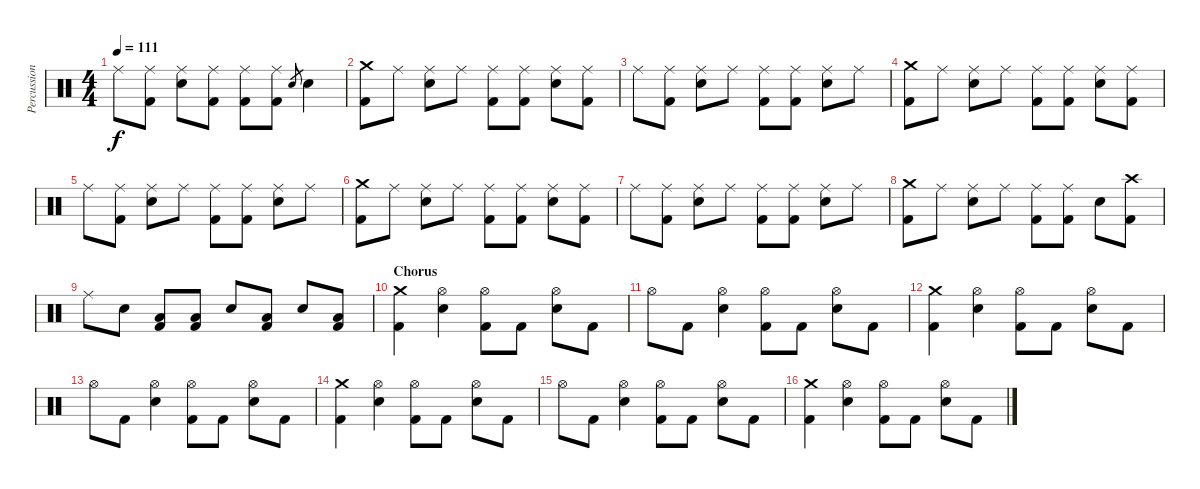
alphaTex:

\track ("Percussion" "Percussion") {instrument percussion}
\staff {score}
\articulation defaults
\ts (4 4)
\tempo 111
\clef neutral
\ks c "Ride (middle)".8{dy f}
("Ride (middle)" "Kick (hit) 2").8 ("Ride (middle)" "Electric Snare (hit)").8 ("Ride (middle)" "Kick (hit) 2").8 ("Ride (middle)" "Kick (hit) 2").8 ("Ride (middle)" "Kick (hit) 2").8 "Electric Snare (hit)".8{gr} "Electric Snare (hit)".4 |
("Crash medium (hit)" "Kick (hit) 2").8 "Ride (middle)".8 ("Ride (middle)" "Electric Snare (hit)").8 "Ride (middle)".8 ("Ride (middle)" "Kick (hit) 2").8 ("Ride (middle)" "Kick (hit) 2").8 ("Ride (middle)" "Electric Snare (hit)").8 ("Ride (middle)" "Kick (hit) 2").8 |
"Ride (middle)".8 ("Ride (middle)" "Kick (hit) 2").8 ("Ride (middle)" "Electric Snare (hit)").8 "Ride (middle)".8 ("Ride (middle)" "Kick (hit) 2").8 ("Ride (middle)" "Kick (hit) 2").8 ("Ride (middle)" "Electric Snare (hit)").8 "Ride (middle)".8 |
("Crash medium (hit)" "Kick (hit) 2").8 "Ride (middle)".8 ("Ride (middle)" "Electric Snare (hit)").8 "Ride (middle)".8 ("Ride (middle)" "Kick (hit) 2").8 ("Ride (middle)" "Kick (hit) 2").8 ("Ride (middle)" "Electric Snare (hit)").8 ("Ride (middle)" "Kick (hit) 2").8 |
"Ride (middle)".8 ("Ride (middle)" "Kick (hit) 2").8 ("Ride (middle)" "Electric Snare (hit)").8 "Ride (middle)".8 ("Ride (middle)" "Kick (hit) 2").8 ("Ride (middle)" "Kick (hit) 2").8 ("Ride (middle)" "Electric Snare (hit)").8 "Ride (middle)".8 |
("Crash medium (hit)" "Kick (hit) 2").8 "Ride (middle)".8 ("Ride (middle)" "Electric Snare (hit)").8 "Ride (middle)".8 ("Ride (middle)" "Kick (hit) 2").8 ("Ride (middle)" "Kick (hit) 2").8 ("Ride (middle)" "Electric Snare (hit)").8 ("Ride (middle)" "Kick (hit) 2").8 |
"Ride (middle)".8 ("Ride (middle)" "Kick (hit) 2").8 ("Ride (middle)" "Electric Snare (hit)").8 "Ride (middle)".8 ("Ride (middle)" "Kick (hit) 2").8 ("Ride (middle)" "Kick (hit) 2").8 ("Ride (middle)" "Electric Snare (hit)").8 "Ride (middle)".8 |
("Crash medium (hit)" "Kick (hit) 2").8 "Ride (middle)".8 ("Ride (middle)" "Electric Snare (hit)").8 "Ride (middle)".8 ("Ride (middle)" "Kick (hit) 2").8 ("Ride (middle)" "Kick (hit) 2").8 "Electric Snare (hit)".8 ("Crash high (hit)" "Kick (hit) 2").8 |
"Ride (middle)".8 "Electric Snare (hit)".8 ("Low Floor Tom (hit)" "Kick (hit) 2").8 ("Low Floor Tom (hit)" "Kick (hit) 2").8 "Electric Snare (hit)".8 ("Low Floor Tom (hit)" "Kick (hit) 2").8 "Electric Snare (hit)".8 ("Low Floor Tom (hit)" "Kick (hit) 2").8 |
\section ("" "Chorus")
("Crash medium (hit)" "Kick (hit) 2").4 ("Hi-Hat (open)" "Electric Snare (hit)").4 ("Hi-Hat (open)" "Kick (hit) 2").8 "Kick (hit) 2".8 ("Hi-Hat (open)" "Electric Snare (hit)").8 "Kick (hit) 2".8 |
"Hi-Hat (open)".8 "Kick (hit) 2".8 ("Hi-Hat (open)" "Electric Snare (hit)").4 ("Hi-Hat (open)" "Kick (hit) 2").8 "Kick (hit) 2".8 ("Hi-Hat (open)" "Electric Snare (hit)").8 "Kick (hit) 2".8 |
("Crash medium (hit)" "Kick (hit) 2").4 ("Hi-Hat (open)" "Electric Snare (hit)").4 ("Hi-Hat (open)" "Kick (hit) 2").8 "Kick (hit) 2".8 ("Hi-Hat (open)" "Electric Snare (hit)").8 "Kick (hit) 2".8 |
"Hi-Hat (open)".8 "Kick (hit) 2".8 ("Hi-Hat (open)" "Electric Snare (hit)").4 ("Hi-Hat (open)" "Kick (hit) 2").8 "Kick (hit) 2".8 ("Hi-Hat (open)" "Electric Snare (hit)").8 "Kick (hit) 2".8 |
("Crash medium (hit)" "Kick (hit) 2").4 ("Hi-Hat (open)" "Electric Snare (hit)").4 ("Hi-Hat (open)" "Kick (hit) 2").8 "Kick (hit) 2".8 ("Hi-Hat (open)" "Electric Snare (hit)").8 "Kick (hit) 2".8 |
"Hi-Hat (open)".8 "Kick (hit) 2".8 ("Hi-Hat (open)" "Electric Snare (hit)").4 ("Hi-Hat (open)" "Kick (hit) 2").8 "Kick (hit) 2".8 ("Hi-Hat (open)" "Electric Snare (hit)").8 "Kick (hit) 2".8 |
("Crash medium (hit)" "Kick (hit) 2").4 ("Hi-Hat (open)" "Electric Snare (hit)").4 ("Hi-Hat (open)" "Kick (hit) 2").8 "Kick (hit) 2".8 ("Hi-Hat (open)" "Electric Snare (hit)").8 "Kick (hit) 2".8
